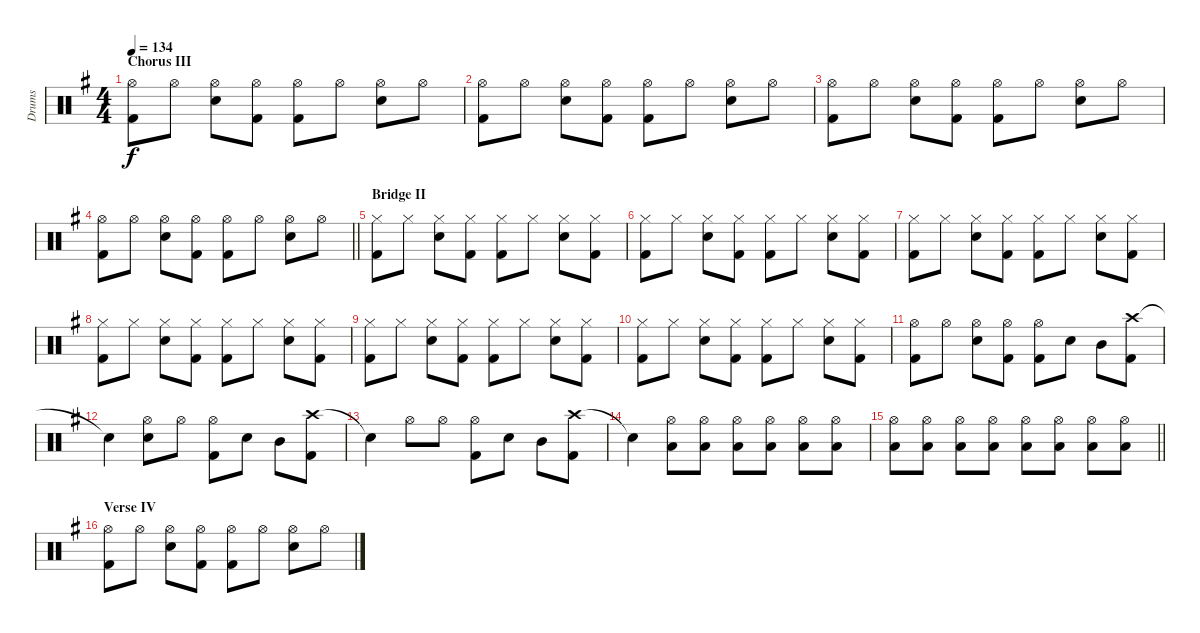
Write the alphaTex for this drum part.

\track ("Drums" "Drums") {instrument percussion}
\staff {score}
\articulation defaults
\ts (4 4)
\section ("" "Chorus III")
\tempo 134
\clef neutral
\ks g
("Hi-Hat (open)" "Kick (hit) 2").8{dy f} "Hi-Hat (open)".8 ("Hi-Hat (open)" "Snare (hit) 2").8 ("Hi-Hat (open)" "Kick (hit) 2").8 ("Hi-Hat (open)" "Kick (hit) 2").8 "Hi-Hat (open)".8 ("Hi-Hat (open)" "Snare (hit) 2").8 "Hi-Hat (open)".8 |
("Hi-Hat (open)" "Kick (hit) 2").8 "Hi-Hat (open)".8 ("Hi-Hat (open)" "Snare (hit) 2").8 ("Hi-Hat (open)" "Kick (hit) 2").8 ("Hi-Hat (open)" "Kick (hit) 2").8 "Hi-Hat (open)".8 ("Hi-Hat (open)" "Snare (hit) 2").8 "Hi-Hat (open)".8 |
("Hi-Hat (open)" "Kick (hit) 2").8 "Hi-Hat (open)".8 ("Hi-Hat (open)" "Snare (hit) 2").8 ("Hi-Hat (open)" "Kick (hit) 2").8 ("Hi-Hat (open)" "Kick (hit) 2").8 "Hi-Hat (open)".8 ("Hi-Hat (open)" "Snare (hit) 2").8 "Hi-Hat (open)".8 |
\barLineRight lightlight
("Hi-Hat (open)" "Kick (hit) 2").8 "Hi-Hat (open)".8 ("Hi-Hat (open)" "Snare (hit) 2").8 ("Hi-Hat (open)" "Kick (hit) 2").8 ("Hi-Hat (open)" "Kick (hit) 2").8 "Hi-Hat (open)".8 ("Hi-Hat (open)" "Snare (hit) 2").8 "Hi-Hat (open)".8 |
\section ("" "Bridge II")
("Hi-Hat (closed)" "Kick (hit) 2").8 "Hi-Hat (closed)".8 ("Hi-Hat (closed)" "Snare (hit) 2").8 ("Hi-Hat (closed)" "Kick (hit) 2").8 ("Hi-Hat (closed)" "Kick (hit) 2").8 "Hi-Hat (closed)".8 ("Hi-Hat (closed)" "Snare (hit) 2").8 ("Hi-Hat (closed)" "Kick (hit) 2").8 |
("Hi-Hat (closed)" "Kick (hit) 2").8 "Hi-Hat (closed)".8 ("Hi-Hat (closed)" "Snare (hit) 2").8 ("Hi-Hat (closed)" "Kick (hit) 2").8 ("Hi-Hat (closed)" "Kick (hit) 2").8 "Hi-Hat (closed)".8 ("Hi-Hat (closed)" "Snare (hit) 2").8 ("Hi-Hat (closed)" "Kick (hit) 2").8 |
("Hi-Hat (closed)" "Kick (hit) 2").8 "Hi-Hat (closed)".8 ("Hi-Hat (closed)" "Snare (hit) 2").8 ("Hi-Hat (closed)" "Kick (hit) 2").8 ("Hi-Hat (closed)" "Kick (hit) 2").8 "Hi-Hat (closed)".8 ("Hi-Hat (closed)" "Snare (hit) 2").8 ("Hi-Hat (closed)" "Kick (hit) 2").8 |
("Hi-Hat (closed)" "Kick (hit) 2").8 "Hi-Hat (closed)".8 ("Hi-Hat (closed)" "Snare (hit) 2").8 ("Hi-Hat (closed)" "Kick (hit) 2").8 ("Hi-Hat (closed)" "Kick (hit) 2").8 "Hi-Hat (closed)".8 ("Hi-Hat (closed)" "Snare (hit) 2").8 ("Hi-Hat (closed)" "Kick (hit) 2").8 |
("Hi-Hat (closed)" "Kick (hit) 2").8 "Hi-Hat (closed)".8 ("Hi-Hat (closed)" "Snare (hit) 2").8 ("Hi-Hat (closed)" "Kick (hit) 2").8 ("Hi-Hat (closed)" "Kick (hit) 2").8 "Hi-Hat (closed)".8 ("Hi-Hat (closed)" "Snare (hit) 2").8 ("Hi-Hat (closed)" "Kick (hit) 2").8 |
("Hi-Hat (closed)" "Kick (hit) 2").8 "Hi-Hat (closed)".8 ("Hi-Hat (closed)" "Snare (hit) 2").8 ("Hi-Hat (closed)" "Kick (hit) 2").8 ("Hi-Hat (closed)" "Kick (hit) 2").8 "Hi-Hat (closed)".8 ("Hi-Hat (closed)" "Snare (hit) 2").8 ("Hi-Hat (closed)" "Kick (hit) 2").8 |
("Hi-Hat (open)" "Kick (hit) 2").8 "Hi-Hat (open)".8 ("Hi-Hat (open)" "Snare (hit) 2").8 ("Hi-Hat (open)" "Kick (hit) 2").8 ("Hi-Hat (open)" "Kick (hit) 2").8 "Snare (hit) 2".8 "Mid Tom (hit)".8 ("Crash high (hit)" "Kick (hit) 2").8 |
"Snare (hit)"{t}.4 ("Hi-Hat (open)" "Snare (hit) 2").8 "Hi-Hat (open)".8 ("Hi-Hat (open)" "Kick (hit) 2").8 "Snare (hit) 2".8 "Mid Tom (hit)".8 ("Crash high (hit)" "Kick (hit) 2").8 |
"Snare (hit)"{t}.4 "Hi-Hat (open)".8 "Hi-Hat (open)".8 ("Hi-Hat (open)" "Kick (hit) 2").8 "Snare (hit) 2".8 "Mid Tom (hit)".8 ("Crash high (hit)" "Kick (hit) 2").8 |
"Snare (hit)"{t}.4 ("Hi-Hat (open)" "Low Floor Tom (hit)").8 ("Hi-Hat (open)" "Low Floor Tom (hit)").8 ("Hi-Hat (open)" "Low Floor Tom (hit)").8 ("Hi-Hat (open)" "Low Floor Tom (hit)").8 ("Hi-Hat (open)" "Low Floor Tom (hit)").8 ("Hi-Hat (open)" "Low Floor Tom (hit)").8 |
\barLineRight lightlight
("Hi-Hat (open)" "Low Floor Tom (hit)").8 ("Hi-Hat (open)" "Low Floor Tom (hit)").8 ("Hi-Hat (open)" "Low Floor Tom (hit)").8 ("Hi-Hat (open)" "Low Floor Tom (hit)").8 ("Hi-Hat (open)" "Low Floor Tom (hit)").8 ("Hi-Hat (open)" "Low Floor Tom (hit)").8 ("Hi-Hat (open)" "Low Floor Tom (hit)").8 ("Hi-Hat (open)" "Low Floor Tom (hit)").8 |
\section ("" "Verse IV")
("Hi-Hat (open)" "Kick (hit) 2").8 "Hi-Hat (open)".8 ("Hi-Hat (open)" "Snare (hit) 2").8 ("Hi-Hat (open)" "Kick (hit) 2").8 ("Hi-Hat (open)" "Kick (hit) 2").8 "Hi-Hat (open)".8 ("Hi-Hat (open)" "Snare (hit) 2").8 "Hi-Hat (open)".8
